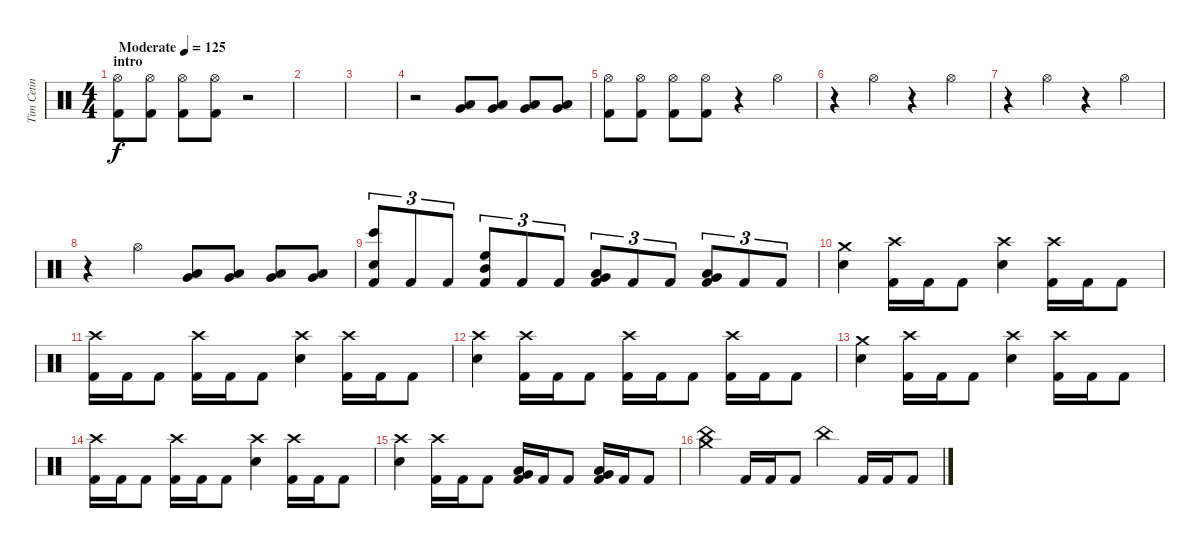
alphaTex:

\track ("Tim Cetin" "Tim Cetin") {instrument percussion}
\staff {score}
\articulation defaults
\ts (4 4)
\section ("" "intro")
\tempo (125 "Moderate")
\clef neutral
\ks c
("Hi-Hat (open)" "Kick (hit) 2").8{dy f} ("Hi-Hat (open)" "Kick (hit) 2").8 ("Hi-Hat (open)" "Kick (hit) 2").8 ("Hi-Hat (open)" "Kick (hit) 2").8 r.2 |
|
|
r.2 ("Low Tom (hit)" "Very Low Tom (hit)").8 ("Low Tom (hit)" "Very Low Tom (hit)").8 ("Very Low Tom (hit)" "Low Floor Tom (hit)").8 ("Very Low Tom (hit)" "Low Floor Tom (hit)").8 |
("Hi-Hat (open)" "Kick (hit) 2").8 ("Hi-Hat (open)" "Kick (hit) 2").8 ("Hi-Hat (open)" "Kick (hit) 2").8 ("Hi-Hat (open)" "Kick (hit) 2").8 r.4 "Hi-Hat (open)".4 |
r.4 "Hi-Hat (open)".4 r.4 "Hi-Hat (open)".4 |
r.4 "Hi-Hat (open)".4 r.4 "Hi-Hat (open)".4 |
r.4 "Hi-Hat (open)".4 ("Low Tom (hit)" "Very Low Tom (hit)").8 ("Low Tom (hit)" "Very Low Tom (hit)").8 ("Very Low Tom (hit)" "Low Floor Tom (hit)").8 ("Very Low Tom (hit)" "Low Floor Tom (hit)").8 |
("Bongo High (hit)" "Snare (hit) 2" "Kick (hit) 2").8{tu (3 2)} "Kick (hit) 2".8{tu (3 2)} "Kick (hit) 2".8{tu (3 2)} ("High Floor Tom (hit)" "Mid Tom (hit)" "Kick (hit) 2").8{tu (3 2)} "Kick (hit) 2".8{tu (3 2)} "Kick (hit) 2".8{tu (3 2)} ("Low Tom (hit)" "Very Low Tom (hit)" "Kick (hit) 2").8{tu (3 2)} "Kick (hit) 2".8{tu (3 2)} "Kick (hit) 2".8{tu (3 2)} ("Low Floor Tom (hit)" "Very Low Tom (hit)" "Kick (hit) 2").8{tu (3 2)} "Kick (hit) 2".8{tu (3 2)} "Kick (hit) 2".8{tu (3 2)} |
("Crash medium (hit)" "Snare (hit) 2").4 ("Crash high (hit)" "Kick (hit) 2").16 "Kick (hit) 2".16 "Kick (hit) 2".8 ("Crash high (hit)" "Snare (hit) 2").4 ("Crash high (hit)" "Kick (hit) 2").16 "Kick (hit) 2".16 "Kick (hit) 2".8 |
("Crash high (hit)" "Kick (hit) 2").16 "Kick (hit) 2".16 "Kick (hit) 2".8 ("Crash high (hit)" "Kick (hit) 2").16 "Kick (hit) 2".16 "Kick (hit) 2".8 ("Crash high (hit)" "Snare (hit) 2").4 ("Crash high (hit)" "Kick (hit) 2").16 "Kick (hit) 2".16 "Kick (hit) 2".8 |
("Crash high (hit)" "Snare (hit) 2").4 ("Crash high (hit)" "Kick (hit) 2").16 "Kick (hit) 2".16 "Kick (hit) 2".8 ("Crash high (hit)" "Kick (hit) 2").16 "Kick (hit) 2".16 "Kick (hit) 2".8 ("Crash high (hit)" "Kick (hit) 2").16 "Kick (hit) 2".16 "Kick (hit) 2".8 |
("Crash medium (hit)" "Snare (hit) 2").4 ("Crash high (hit)" "Kick (hit) 2").16 "Kick (hit) 2".16 "Kick (hit) 2".8 ("Crash high (hit)" "Snare (hit) 2").4 ("Crash high (hit)" "Kick (hit) 2").16 "Kick (hit) 2".16 "Kick (hit) 2".8 |
("Crash high (hit)" "Kick (hit) 2").16 "Kick (hit) 2".16 "Kick (hit) 2".8 ("Crash high (hit)" "Kick (hit) 2").16 "Kick (hit) 2".16 "Kick (hit) 2".8 ("Crash high (hit)" "Snare (hit) 2").4 ("Crash high (hit)" "Kick (hit) 2").16 "Kick (hit) 2".16 "Kick (hit) 2".8 |
("Crash high (hit)" "Snare (hit) 2").4 ("Crash high (hit)" "Kick (hit) 2").16 "Kick (hit) 2".16 "Kick (hit) 2".8 ("Low Tom (hit)" "Very Low Tom (hit)" "Kick (hit) 2").16 "Kick (hit) 2".16 "Kick (hit) 2".8 ("Low Floor Tom (hit)" "Very Low Tom (hit)" "Kick (hit) 2").16 "Kick (hit) 2".16 "Kick (hit) 2".8 |
("Crash medium (hit)" "China (hit)").4 "Kick (hit) 2".16 "Kick (hit) 2".16 "Kick (hit) 2".8 "China (hit)".4 "Kick (hit) 2".16 "Kick (hit) 2".16 "Kick (hit) 2".8
